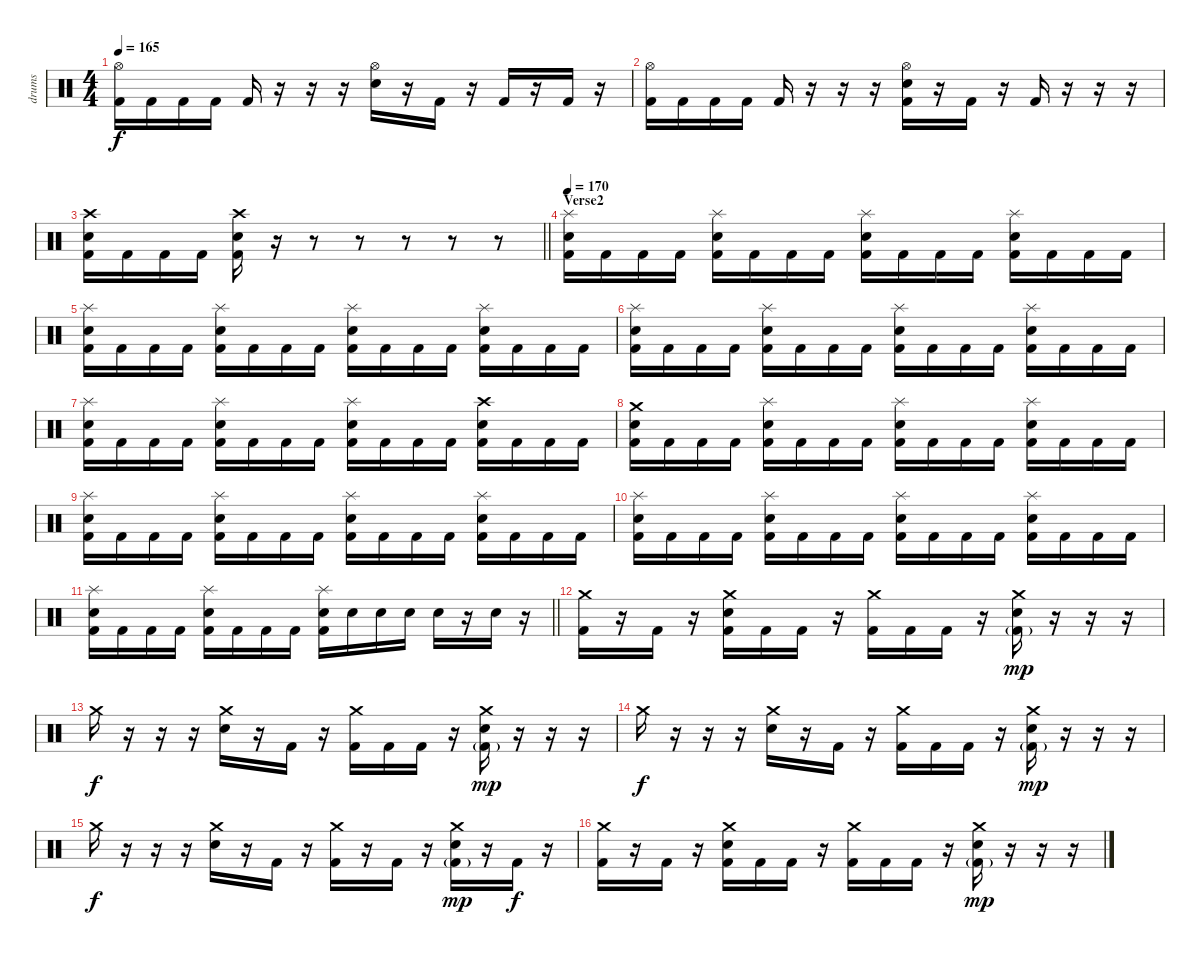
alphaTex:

\track ("drums" "drums") {instrument percussion}
\staff {score}
\articulation defaults
\ts (4 4)
\tempo 165
\clef neutral
\ks c
("Hi-Hat (open)" "Kick (hit) 2").16{dy f} "Kick (hit) 2".16 "Kick (hit) 2".16 "Kick (hit) 2".16 "Kick (hit) 2".16 r.16 r.16 r.16 ("Hi-Hat (open)" "Snare (hit) 2").16 r.16 "Kick (hit) 2".16 r.16 "Kick (hit) 2".16 r.16 "Kick (hit) 2".16 r.16 |
("Hi-Hat (open)" "Kick (hit) 2").16 "Kick (hit) 2".16 "Kick (hit) 2".16 "Kick (hit) 2".16 "Kick (hit) 2".16 r.16 r.16 r.16 ("Hi-Hat (open)" "Snare (hit) 2" "Kick (hit) 2").16 r.16 "Kick (hit) 2".16 r.16 "Kick (hit) 2".16 r.16 r.16 r.16 |
\barLineRight lightlight
("Crash high (hit)" "Snare (hit) 2" "Kick (hit) 2").16 "Kick (hit) 2".16 "Kick (hit) 2".16 "Kick (hit) 2".16 ("Crash high (hit)" "Snare (hit) 2" "Kick (hit) 2").16 r.16 r.8 r.8 r.8 r.8 r.8 |
\section ("" "Verse2")
\tempo 170
("Splash (hit)" "Snare (hit) 2" "Kick (hit) 2").16 "Kick (hit) 2".16 "Kick (hit) 2".16 "Kick (hit) 2".16 ("Splash (hit)" "Snare (hit) 2" "Kick (hit) 2").16 "Kick (hit) 2".16 "Kick (hit) 2".16 "Kick (hit) 2".16 ("Splash (hit)" "Snare (hit) 2" "Kick (hit) 2").16 "Kick (hit) 2".16 "Kick (hit) 2".16 "Kick (hit) 2".16 ("Splash (hit)" "Snare (hit) 2" "Kick (hit) 2").16 "Kick (hit) 2".16 "Kick (hit) 2".16 "Kick (hit) 2".16 |
("Splash (hit)" "Snare (hit) 2" "Kick (hit) 2").16 "Kick (hit) 2".16 "Kick (hit) 2".16 "Kick (hit) 2".16 ("Splash (hit)" "Snare (hit) 2" "Kick (hit) 2").16 "Kick (hit) 2".16 "Kick (hit) 2".16 "Kick (hit) 2".16 ("Splash (hit)" "Snare (hit) 2" "Kick (hit) 2").16 "Kick (hit) 2".16 "Kick (hit) 2".16 "Kick (hit) 2".16 ("Splash (hit)" "Snare (hit) 2" "Kick (hit) 2").16 "Kick (hit) 2".16 "Kick (hit) 2".16 "Kick (hit) 2".16 |
("Splash (hit)" "Snare (hit) 2" "Kick (hit) 2").16 "Kick (hit) 2".16 "Kick (hit) 2".16 "Kick (hit) 2".16 ("Splash (hit)" "Snare (hit) 2" "Kick (hit) 2").16 "Kick (hit) 2".16 "Kick (hit) 2".16 "Kick (hit) 2".16 ("Splash (hit)" "Snare (hit) 2" "Kick (hit) 2").16 "Kick (hit) 2".16 "Kick (hit) 2".16 "Kick (hit) 2".16 ("Splash (hit)" "Snare (hit) 2" "Kick (hit) 2").16 "Kick (hit) 2".16 "Kick (hit) 2".16 "Kick (hit) 2".16 |
("Splash (hit)" "Snare (hit) 2" "Kick (hit) 2").16 "Kick (hit) 2".16 "Kick (hit) 2".16 "Kick (hit) 2".16 ("Splash (hit)" "Snare (hit) 2" "Kick (hit) 2").16 "Kick (hit) 2".16 "Kick (hit) 2".16 "Kick (hit) 2".16 ("Splash (hit)" "Snare (hit) 2" "Kick (hit) 2").16 "Kick (hit) 2".16 "Kick (hit) 2".16 "Kick (hit) 2".16 ("Crash high (hit)" "Snare (hit) 2" "Kick (hit) 2").16 "Kick (hit) 2".16 "Kick (hit) 2".16 "Kick (hit) 2".16 |
("Crash medium (hit)" "Snare (hit) 2" "Kick (hit) 2").16 "Kick (hit) 2".16 "Kick (hit) 2".16 "Kick (hit) 2".16 ("Splash (hit)" "Snare (hit) 2" "Kick (hit) 2").16 "Kick (hit) 2".16 "Kick (hit) 2".16 "Kick (hit) 2".16 ("Splash (hit)" "Snare (hit) 2" "Kick (hit) 2").16 "Kick (hit) 2".16 "Kick (hit) 2".16 "Kick (hit) 2".16 ("Splash (hit)" "Snare (hit) 2" "Kick (hit) 2").16 "Kick (hit) 2".16 "Kick (hit) 2".16 "Kick (hit) 2".16 |
("Splash (hit)" "Snare (hit) 2" "Kick (hit) 2").16 "Kick (hit) 2".16 "Kick (hit) 2".16 "Kick (hit) 2".16 ("Splash (hit)" "Snare (hit) 2" "Kick (hit) 2").16 "Kick (hit) 2".16 "Kick (hit) 2".16 "Kick (hit) 2".16 ("Splash (hit)" "Snare (hit) 2" "Kick (hit) 2").16 "Kick (hit) 2".16 "Kick (hit) 2".16 "Kick (hit) 2".16 ("Splash (hit)" "Snare (hit) 2" "Kick (hit) 2").16 "Kick (hit) 2".16 "Kick (hit) 2".16 "Kick (hit) 2".16 |
("Splash (hit)" "Snare (hit) 2" "Kick (hit) 2").16 "Kick (hit) 2".16 "Kick (hit) 2".16 "Kick (hit) 2".16 ("Splash (hit)" "Snare (hit) 2" "Kick (hit) 2").16 "Kick (hit) 2".16 "Kick (hit) 2".16 "Kick (hit) 2".16 ("Splash (hit)" "Snare (hit) 2" "Kick (hit) 2").16 "Kick (hit) 2".16 "Kick (hit) 2".16 "Kick (hit) 2".16 ("Splash (hit)" "Snare (hit) 2" "Kick (hit) 2").16 "Kick (hit) 2".16 "Kick (hit) 2".16 "Kick (hit) 2".16 |
\barLineRight lightlight
("Splash (hit)" "Snare (hit) 2" "Kick (hit) 2").16 "Kick (hit) 2".16 "Kick (hit) 2".16 "Kick (hit) 2".16 ("Splash (hit)" "Snare (hit) 2" "Kick (hit) 2").16 "Kick (hit) 2".16 "Kick (hit) 2".16 "Kick (hit) 2".16 ("Splash (hit)" "Snare (hit) 2" "Kick (hit) 2").16 "Snare (hit) 2".16 "Snare (hit) 2".16 "Snare (hit) 2".16 "Snare (hit) 2".16 r.16 "Snare (hit) 2".16 r.16 |
("Crash medium (hit)" "Kick (hit) 2").16 r.16 "Kick (hit) 2".16 r.16 ("Crash medium (hit)" "Snare (hit) 2" "Kick (hit) 2").16 "Kick (hit) 2".16 "Kick (hit) 2".16 r.16 ("Crash medium (hit)" "Kick (hit) 2").16 "Kick (hit) 2".16 "Kick (hit) 2".16 r.16 ("Crash medium (hit)" "Snare (hit) 2" "Kick (hit) 2"{g}).16{dy mp} r.16 r.16 r.16 |
"Crash medium (hit)".16{dy f} r.16 r.16 r.16 ("Crash medium (hit)" "Snare (hit) 2").16 r.16 "Kick (hit) 2".16 r.16 ("Crash medium (hit)" "Kick (hit) 2").16 "Kick (hit) 2".16 "Kick (hit) 2".16 r.16 ("Crash medium (hit)" "Snare (hit) 2" "Kick (hit) 2"{g}).16{dy mp} r.16 r.16 r.16 |
"Crash medium (hit)".16{dy f} r.16 r.16 r.16 ("Crash medium (hit)" "Snare (hit) 2").16 r.16 "Kick (hit) 2".16 r.16 ("Crash medium (hit)" "Kick (hit) 2").16 "Kick (hit) 2".16 "Kick (hit) 2".16 r.16 ("Crash medium (hit)" "Snare (hit) 2" "Kick (hit) 2"{g}).16{dy mp} r.16 r.16 r.16 |
"Crash medium (hit)".16{dy f} r.16 r.16 r.16 ("Crash medium (hit)" "Snare (hit) 2").16 r.16 "Kick (hit) 2".16 r.16 ("Crash medium (hit)" "Kick (hit) 2").16 r.16 "Kick (hit) 2".16 r.16 ("Crash medium (hit)" "Snare (hit) 2" "Kick (hit) 2"{g}).16{dy mp} r.16 "Kick (hit) 2".16{dy f} r.16 |
("Crash medium (hit)" "Kick (hit) 2").16 r.16 "Kick (hit) 2".16 r.16 ("Crash medium (hit)" "Snare (hit) 2" "Kick (hit) 2").16 "Kick (hit) 2".16 "Kick (hit) 2".16 r.16 ("Crash medium (hit)" "Kick (hit) 2").16 "Kick (hit) 2".16 "Kick (hit) 2".16 r.16 ("Crash medium (hit)" "Snare (hit) 2" "Kick (hit) 2"{g}).16{dy mp} r.16 r.16 r.16
